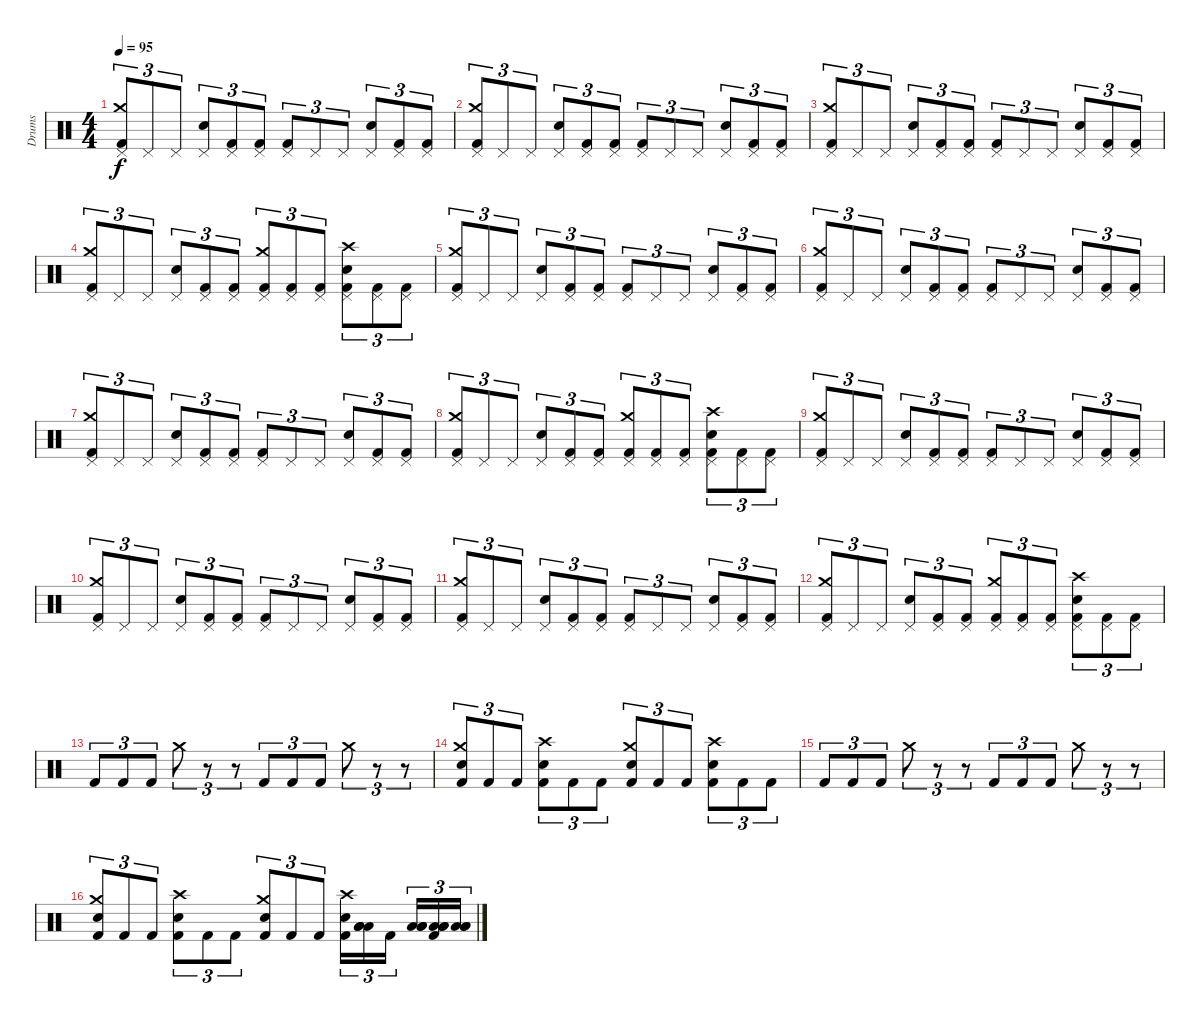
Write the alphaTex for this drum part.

\track ("Drums" "Drums") {instrument percussion}
\staff {score}
\articulation defaults
\ts (4 4)
\tempo 95
\clef neutral
\ks c
("Kick (hit) 2" "Crash medium (hit)" "Pedal Hi-Hat (hit)").8{tu (3 2) dy f} "Pedal Hi-Hat (hit)".8{tu (3 2)} "Pedal Hi-Hat (hit)".8{tu (3 2)} ("Snare (hit) 2" "Pedal Hi-Hat (hit)").8{tu (3 2)} ("Kick (hit) 2" "Pedal Hi-Hat (hit)").8{tu (3 2)} ("Kick (hit) 2" "Pedal Hi-Hat (hit)").8{tu (3 2)} ("Kick (hit) 2" "Pedal Hi-Hat (hit)").8{tu (3 2)} "Pedal Hi-Hat (hit)".8{tu (3 2)} "Pedal Hi-Hat (hit)".8{tu (3 2)} ("Snare (hit) 2" "Pedal Hi-Hat (hit)").8{tu (3 2)} ("Kick (hit) 2" "Pedal Hi-Hat (hit)").8{tu (3 2)} ("Kick (hit) 2" "Pedal Hi-Hat (hit)").8{tu (3 2)} |
("Kick (hit) 2" "Crash medium (hit)" "Pedal Hi-Hat (hit)").8{tu (3 2)} "Pedal Hi-Hat (hit)".8{tu (3 2)} "Pedal Hi-Hat (hit)".8{tu (3 2)} ("Snare (hit) 2" "Pedal Hi-Hat (hit)").8{tu (3 2)} ("Kick (hit) 2" "Pedal Hi-Hat (hit)").8{tu (3 2)} ("Kick (hit) 2" "Pedal Hi-Hat (hit)").8{tu (3 2)} ("Kick (hit) 2" "Pedal Hi-Hat (hit)").8{tu (3 2)} "Pedal Hi-Hat (hit)".8{tu (3 2)} "Pedal Hi-Hat (hit)".8{tu (3 2)} ("Snare (hit) 2" "Pedal Hi-Hat (hit)").8{tu (3 2)} ("Kick (hit) 2" "Pedal Hi-Hat (hit)").8{tu (3 2)} ("Kick (hit) 2" "Pedal Hi-Hat (hit)").8{tu (3 2)} |
("Kick (hit) 2" "Crash medium (hit)" "Pedal Hi-Hat (hit)").8{tu (3 2)} "Pedal Hi-Hat (hit)".8{tu (3 2)} "Pedal Hi-Hat (hit)".8{tu (3 2)} ("Snare (hit) 2" "Pedal Hi-Hat (hit)").8{tu (3 2)} ("Kick (hit) 2" "Pedal Hi-Hat (hit)").8{tu (3 2)} ("Kick (hit) 2" "Pedal Hi-Hat (hit)").8{tu (3 2)} ("Kick (hit) 2" "Pedal Hi-Hat (hit)").8{tu (3 2)} "Pedal Hi-Hat (hit)".8{tu (3 2)} "Pedal Hi-Hat (hit)".8{tu (3 2)} ("Snare (hit) 2" "Pedal Hi-Hat (hit)").8{tu (3 2)} ("Kick (hit) 2" "Pedal Hi-Hat (hit)").8{tu (3 2)} ("Kick (hit) 2" "Pedal Hi-Hat (hit)").8{tu (3 2)} |
("Kick (hit) 2" "Crash medium (hit)" "Pedal Hi-Hat (hit)").8{tu (3 2)} "Pedal Hi-Hat (hit)".8{tu (3 2)} "Pedal Hi-Hat (hit)".8{tu (3 2)} ("Snare (hit) 2" "Pedal Hi-Hat (hit)").8{tu (3 2)} ("Kick (hit) 2" "Pedal Hi-Hat (hit)").8{tu (3 2)} ("Kick (hit) 2" "Pedal Hi-Hat (hit)").8{tu (3 2)} ("Kick (hit) 2" "Crash medium (hit)" "Pedal Hi-Hat (hit)").8{tu (3 2)} ("Kick (hit) 2" "Pedal Hi-Hat (hit)").8{tu (3 2)} ("Kick (hit) 2" "Pedal Hi-Hat (hit)").8{tu (3 2)} ("Kick (hit) 2" "Crash high (hit)" "Snare (hit) 2" "Pedal Hi-Hat (hit)").8{tu (3 2)} ("Kick (hit) 2" "Pedal Hi-Hat (hit)").8{tu (3 2)} ("Kick (hit) 2" "Pedal Hi-Hat (hit)").8{tu (3 2)} |
("Kick (hit) 2" "Crash medium (hit)" "Pedal Hi-Hat (hit)").8{tu (3 2)} "Pedal Hi-Hat (hit)".8{tu (3 2)} "Pedal Hi-Hat (hit)".8{tu (3 2)} ("Snare (hit) 2" "Pedal Hi-Hat (hit)").8{tu (3 2)} ("Kick (hit) 2" "Pedal Hi-Hat (hit)").8{tu (3 2)} ("Kick (hit) 2" "Pedal Hi-Hat (hit)").8{tu (3 2)} ("Kick (hit) 2" "Pedal Hi-Hat (hit)").8{tu (3 2)} "Pedal Hi-Hat (hit)".8{tu (3 2)} "Pedal Hi-Hat (hit)".8{tu (3 2)} ("Snare (hit) 2" "Pedal Hi-Hat (hit)").8{tu (3 2)} ("Kick (hit) 2" "Pedal Hi-Hat (hit)").8{tu (3 2)} ("Kick (hit) 2" "Pedal Hi-Hat (hit)").8{tu (3 2)} |
("Kick (hit) 2" "Crash medium (hit)" "Pedal Hi-Hat (hit)").8{tu (3 2)} "Pedal Hi-Hat (hit)".8{tu (3 2)} "Pedal Hi-Hat (hit)".8{tu (3 2)} ("Snare (hit) 2" "Pedal Hi-Hat (hit)").8{tu (3 2)} ("Kick (hit) 2" "Pedal Hi-Hat (hit)").8{tu (3 2)} ("Kick (hit) 2" "Pedal Hi-Hat (hit)").8{tu (3 2)} ("Kick (hit) 2" "Pedal Hi-Hat (hit)").8{tu (3 2)} "Pedal Hi-Hat (hit)".8{tu (3 2)} "Pedal Hi-Hat (hit)".8{tu (3 2)} ("Snare (hit) 2" "Pedal Hi-Hat (hit)").8{tu (3 2)} ("Kick (hit) 2" "Pedal Hi-Hat (hit)").8{tu (3 2)} ("Kick (hit) 2" "Pedal Hi-Hat (hit)").8{tu (3 2)} |
("Kick (hit) 2" "Crash medium (hit)" "Pedal Hi-Hat (hit)").8{tu (3 2)} "Pedal Hi-Hat (hit)".8{tu (3 2)} "Pedal Hi-Hat (hit)".8{tu (3 2)} ("Snare (hit) 2" "Pedal Hi-Hat (hit)").8{tu (3 2)} ("Kick (hit) 2" "Pedal Hi-Hat (hit)").8{tu (3 2)} ("Kick (hit) 2" "Pedal Hi-Hat (hit)").8{tu (3 2)} ("Kick (hit) 2" "Pedal Hi-Hat (hit)").8{tu (3 2)} "Pedal Hi-Hat (hit)".8{tu (3 2)} "Pedal Hi-Hat (hit)".8{tu (3 2)} ("Snare (hit) 2" "Pedal Hi-Hat (hit)").8{tu (3 2)} ("Kick (hit) 2" "Pedal Hi-Hat (hit)").8{tu (3 2)} ("Kick (hit) 2" "Pedal Hi-Hat (hit)").8{tu (3 2)} |
("Kick (hit) 2" "Crash medium (hit)" "Pedal Hi-Hat (hit)").8{tu (3 2)} "Pedal Hi-Hat (hit)".8{tu (3 2)} "Pedal Hi-Hat (hit)".8{tu (3 2)} ("Snare (hit) 2" "Pedal Hi-Hat (hit)").8{tu (3 2)} ("Kick (hit) 2" "Pedal Hi-Hat (hit)").8{tu (3 2)} ("Kick (hit) 2" "Pedal Hi-Hat (hit)").8{tu (3 2)} ("Kick (hit) 2" "Crash medium (hit)" "Pedal Hi-Hat (hit)").8{tu (3 2)} ("Kick (hit) 2" "Pedal Hi-Hat (hit)").8{tu (3 2)} ("Kick (hit) 2" "Pedal Hi-Hat (hit)").8{tu (3 2)} ("Kick (hit) 2" "Crash high (hit)" "Snare (hit) 2" "Pedal Hi-Hat (hit)").8{tu (3 2)} ("Kick (hit) 2" "Pedal Hi-Hat (hit)").8{tu (3 2)} ("Kick (hit) 2" "Pedal Hi-Hat (hit)").8{tu (3 2)} |
("Kick (hit) 2" "Crash medium (hit)" "Pedal Hi-Hat (hit)").8{tu (3 2)} "Pedal Hi-Hat (hit)".8{tu (3 2)} "Pedal Hi-Hat (hit)".8{tu (3 2)} ("Snare (hit) 2" "Pedal Hi-Hat (hit)").8{tu (3 2)} ("Kick (hit) 2" "Pedal Hi-Hat (hit)").8{tu (3 2)} ("Kick (hit) 2" "Pedal Hi-Hat (hit)").8{tu (3 2)} ("Kick (hit) 2" "Pedal Hi-Hat (hit)").8{tu (3 2)} "Pedal Hi-Hat (hit)".8{tu (3 2)} "Pedal Hi-Hat (hit)".8{tu (3 2)} ("Snare (hit) 2" "Pedal Hi-Hat (hit)").8{tu (3 2)} ("Kick (hit) 2" "Pedal Hi-Hat (hit)").8{tu (3 2)} ("Kick (hit) 2" "Pedal Hi-Hat (hit)").8{tu (3 2)} |
("Kick (hit) 2" "Crash medium (hit)" "Pedal Hi-Hat (hit)").8{tu (3 2)} "Pedal Hi-Hat (hit)".8{tu (3 2)} "Pedal Hi-Hat (hit)".8{tu (3 2)} ("Snare (hit) 2" "Pedal Hi-Hat (hit)").8{tu (3 2)} ("Kick (hit) 2" "Pedal Hi-Hat (hit)").8{tu (3 2)} ("Kick (hit) 2" "Pedal Hi-Hat (hit)").8{tu (3 2)} ("Kick (hit) 2" "Pedal Hi-Hat (hit)").8{tu (3 2)} "Pedal Hi-Hat (hit)".8{tu (3 2)} "Pedal Hi-Hat (hit)".8{tu (3 2)} ("Snare (hit) 2" "Pedal Hi-Hat (hit)").8{tu (3 2)} ("Kick (hit) 2" "Pedal Hi-Hat (hit)").8{tu (3 2)} ("Kick (hit) 2" "Pedal Hi-Hat (hit)").8{tu (3 2)} |
("Kick (hit) 2" "Crash medium (hit)" "Pedal Hi-Hat (hit)").8{tu (3 2)} "Pedal Hi-Hat (hit)".8{tu (3 2)} "Pedal Hi-Hat (hit)".8{tu (3 2)} ("Snare (hit) 2" "Pedal Hi-Hat (hit)").8{tu (3 2)} ("Kick (hit) 2" "Pedal Hi-Hat (hit)").8{tu (3 2)} ("Kick (hit) 2" "Pedal Hi-Hat (hit)").8{tu (3 2)} ("Kick (hit) 2" "Pedal Hi-Hat (hit)").8{tu (3 2)} "Pedal Hi-Hat (hit)".8{tu (3 2)} "Pedal Hi-Hat (hit)".8{tu (3 2)} ("Snare (hit) 2" "Pedal Hi-Hat (hit)").8{tu (3 2)} ("Kick (hit) 2" "Pedal Hi-Hat (hit)").8{tu (3 2)} ("Kick (hit) 2" "Pedal Hi-Hat (hit)").8{tu (3 2)} |
("Kick (hit) 2" "Crash medium (hit)" "Pedal Hi-Hat (hit)").8{tu (3 2)} "Pedal Hi-Hat (hit)".8{tu (3 2)} "Pedal Hi-Hat (hit)".8{tu (3 2)} ("Snare (hit) 2" "Pedal Hi-Hat (hit)").8{tu (3 2)} ("Kick (hit) 2" "Pedal Hi-Hat (hit)").8{tu (3 2)} ("Kick (hit) 2" "Pedal Hi-Hat (hit)").8{tu (3 2)} ("Kick (hit) 2" "Crash medium (hit)" "Pedal Hi-Hat (hit)").8{tu (3 2)} ("Kick (hit) 2" "Pedal Hi-Hat (hit)").8{tu (3 2)} ("Kick (hit) 2" "Pedal Hi-Hat (hit)").8{tu (3 2)} ("Kick (hit) 2" "Crash high (hit)" "Snare (hit) 2" "Pedal Hi-Hat (hit)").8{tu (3 2)} ("Kick (hit) 2" "Pedal Hi-Hat (hit)").8{tu (3 2)} ("Kick (hit) 2" "Pedal Hi-Hat (hit)").8{tu (3 2)} |
"Kick (hit) 2".8{tu (3 2)} "Kick (hit) 2".8{tu (3 2)} "Kick (hit) 2".8{tu (3 2)} "Crash medium (hit)".8{tu (3 2)} r.8{tu (3 2)} r.8{tu (3 2)} "Kick (hit) 2".8{tu (3 2)} "Kick (hit) 2".8{tu (3 2)} "Kick (hit) 2".8{tu (3 2)} "Crash medium (hit)".8{tu (3 2)} r.8{tu (3 2)} r.8{tu (3 2)} |
("Kick (hit) 2" "Crash medium (hit)" "Snare (hit) 2").8{tu (3 2)} "Kick (hit) 2".8{tu (3 2)} "Kick (hit) 2".8{tu (3 2)} ("Kick (hit) 2" "Crash high (hit)" "Snare (hit) 2").8{tu (3 2)} "Kick (hit) 2".8{tu (3 2)} "Kick (hit) 2".8{tu (3 2)} ("Kick (hit) 2" "Crash medium (hit)" "Snare (hit) 2").8{tu (3 2)} "Kick (hit) 2".8{tu (3 2)} "Kick (hit) 2".8{tu (3 2)} ("Kick (hit) 2" "Crash high (hit)" "Snare (hit) 2").8{tu (3 2)} "Kick (hit) 2".8{tu (3 2)} "Kick (hit) 2".8{tu (3 2)} |
"Kick (hit) 2".8{tu (3 2)} "Kick (hit) 2".8{tu (3 2)} "Kick (hit) 2".8{tu (3 2)} "Crash medium (hit)".8{tu (3 2)} r.8{tu (3 2)} r.8{tu (3 2)} "Kick (hit) 2".8{tu (3 2)} "Kick (hit) 2".8{tu (3 2)} "Kick (hit) 2".8{tu (3 2)} "Crash medium (hit)".8{tu (3 2)} r.8{tu (3 2)} r.8{tu (3 2)} |
("Kick (hit) 2" "Crash medium (hit)" "Snare (hit) 2").8{tu (3 2)} "Kick (hit) 2".8{tu (3 2)} "Kick (hit) 2".8{tu (3 2)} ("Kick (hit) 2" "Crash high (hit)" "Snare (hit) 2").8{tu (3 2)} "Kick (hit) 2".8{tu (3 2)} "Kick (hit) 2".8{tu (3 2)} ("Kick (hit) 2" "Crash medium (hit)" "Snare (hit) 2").8{tu (3 2)} "Kick (hit) 2".8{tu (3 2)} "Kick (hit) 2".8{tu (3 2)} ("Kick (hit) 2" "Crash high (hit)" "Snare (hit) 2").16{tu (3 2)} ("Low Tom (hit)" "Low Tom (hit)" "Low Tom (hit)").16{tu (3 2)} "Kick (hit) 2".16{tu (3 2) beam splitsecondary} ("Low Tom (hit)" "Low Tom (hit)" "Low Tom (hit)").16{tu (3 2)} ("Kick (hit) 2" "Low Tom (hit)" "Low Tom (hit)" "Low Tom (hit)").16{tu (3 2)} ("Low Floor Tom (hit)" "Low Floor Tom (hit)" "Low Floor Tom (hit)").16{tu (3 2)}
